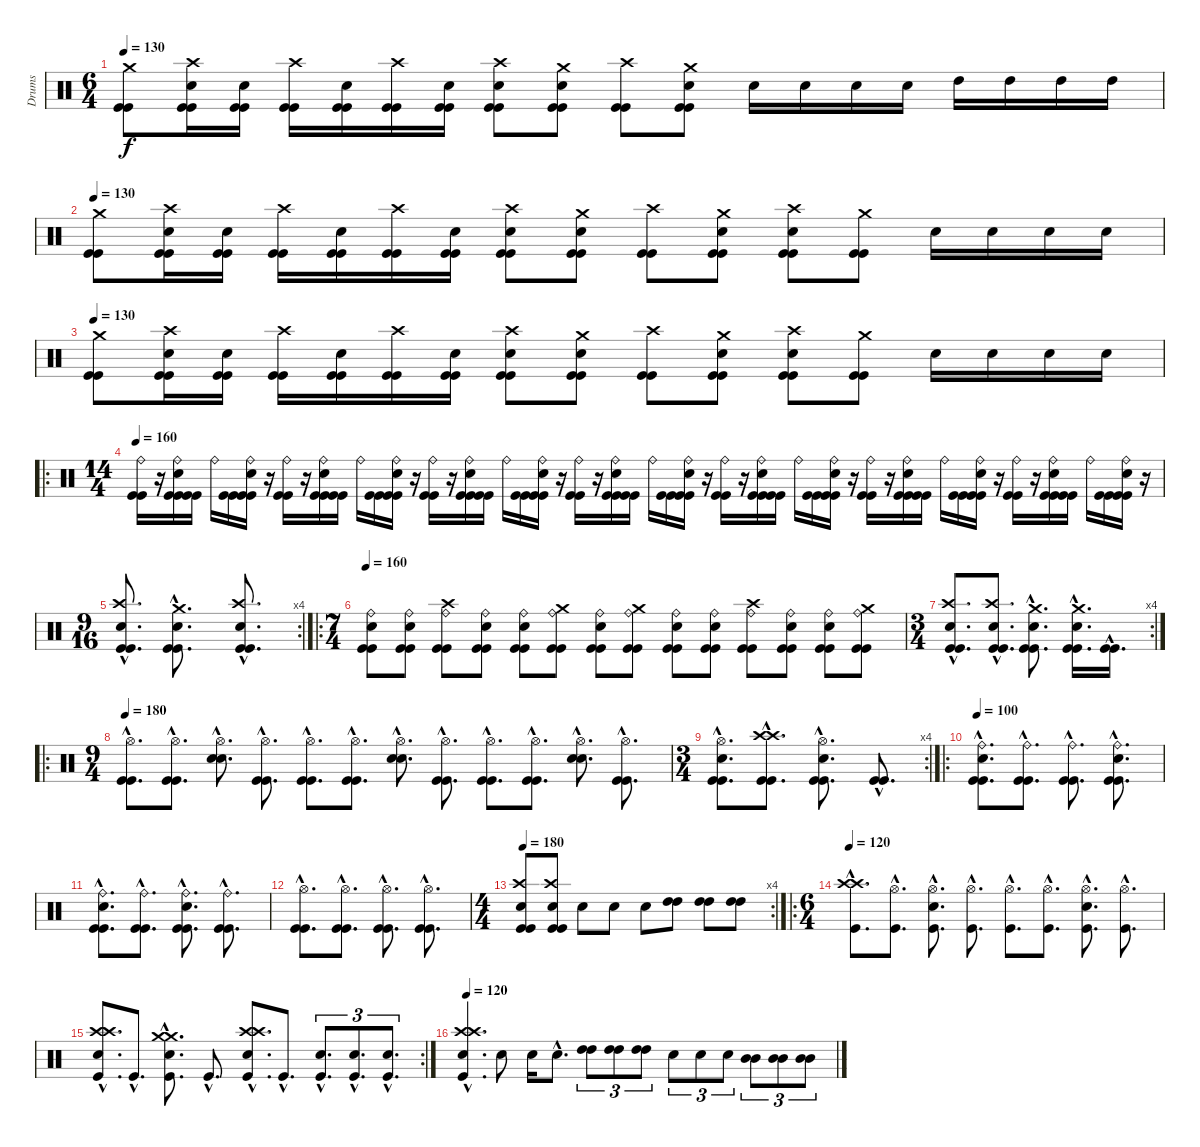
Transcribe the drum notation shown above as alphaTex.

\track ("Drums" "Drums") {instrument percussion}
\staff {score}
\articulation defaults
\ts (6 4)
\tempo 130
\clef neutral
\ks c
("Crash medium (hit)" "Kick (hit)" "Kick (hit)").8{dy f} ("Crash high (hit)" "Electric Snare (hit)" "Kick (hit)" "Kick (hit)").16 ("Electric Snare (hit)" "Kick (hit)" "Kick (hit)").16 ("Crash high (hit)" "Kick (hit)" "Kick (hit)").16 ("Electric Snare (hit)" "Kick (hit)" "Kick (hit)").16 ("Crash high (hit)" "Kick (hit)" "Kick (hit)").16 ("Electric Snare (hit)" "Kick (hit)" "Kick (hit)").16 ("Crash high (hit)" "Electric Snare (hit)" "Kick (hit)" "Kick (hit)").8 ("Crash medium (hit)" "Electric Snare (hit)" "Kick (hit)" "Kick (hit)").8 ("Crash high (hit)" "Kick (hit)" "Kick (hit)").8 ("Crash medium (hit)" "Electric Snare (hit)" "Kick (hit)" "Kick (hit)").8 "Electric Snare (hit)".16 "Electric Snare (hit)".16 "Electric Snare (hit)".16 "Electric Snare (hit)".16 "High Tom (hit)".16 "High Tom (hit)".16 "High Tom (hit)".16 "High Tom (hit)".16 |
\tempo 130
("Crash medium (hit)" "Kick (hit)" "Kick (hit)").8 ("Crash high (hit)" "Electric Snare (hit)" "Kick (hit)" "Kick (hit)").16 ("Electric Snare (hit)" "Kick (hit)" "Kick (hit)").16 ("Crash high (hit)" "Kick (hit)" "Kick (hit)").16 ("Electric Snare (hit)" "Kick (hit)" "Kick (hit)").16 ("Crash high (hit)" "Kick (hit)" "Kick (hit)").16 ("Electric Snare (hit)" "Kick (hit)" "Kick (hit)").16 ("Crash high (hit)" "Electric Snare (hit)" "Kick (hit)" "Kick (hit)").8 ("Crash medium (hit)" "Electric Snare (hit)" "Kick (hit)" "Kick (hit)").8 ("Crash high (hit)" "Kick (hit)" "Kick (hit)").8 ("Crash medium (hit)" "Electric Snare (hit)" "Kick (hit)" "Kick (hit)").8 ("Crash high (hit)" "Electric Snare (hit)" "Kick (hit)" "Kick (hit)").8 ("Crash medium (hit)" "Kick (hit)" "Kick (hit)").8 "Electric Snare (hit)".16 "Electric Snare (hit)".16 "Electric Snare (hit)".16 "Electric Snare (hit)".16 |
\tempo 130
("Crash medium (hit)" "Kick (hit)" "Kick (hit)").8 ("Crash high (hit)" "Electric Snare (hit)" "Kick (hit)" "Kick (hit)").16 ("Electric Snare (hit)" "Kick (hit)" "Kick (hit)").16 ("Crash high (hit)" "Kick (hit)" "Kick (hit)").16 ("Electric Snare (hit)" "Kick (hit)" "Kick (hit)").16 ("Crash high (hit)" "Kick (hit)" "Kick (hit)").16 ("Electric Snare (hit)" "Kick (hit)" "Kick (hit)").16 ("Crash high (hit)" "Electric Snare (hit)" "Kick (hit)" "Kick (hit)").8 ("Crash medium (hit)" "Electric Snare (hit)" "Kick (hit)" "Kick (hit)").8 ("Crash high (hit)" "Kick (hit)" "Kick (hit)").8 ("Crash medium (hit)" "Electric Snare (hit)" "Kick (hit)" "Kick (hit)").8 ("Crash high (hit)" "Electric Snare (hit)" "Kick (hit)" "Kick (hit)").8 ("Crash medium (hit)" "Kick (hit)" "Kick (hit)").8 "Electric Snare (hit)".16 "Electric Snare (hit)".16 "Electric Snare (hit)".16 "Electric Snare (hit)".16 |
\ro
\ts (14 4)
\tempo 160
("Ride (bell)" "Kick (hit)" "Kick (hit)").16 r.16 ("Ride (bell)" "Electric Snare (hit)" "Kick (hit)" "Kick (hit)").16 ("Kick (hit)" "Kick (hit)").16 "Ride (bell)".16 ("Kick (hit)" "Kick (hit)").16 ("Ride (bell)" "Electric Snare (hit)" "Kick (hit)" "Kick (hit)").16 r.16 ("Ride (bell)" "Kick (hit)" "Kick (hit)").16 r.16 ("Ride (bell)" "Electric Snare (hit)" "Kick (hit)" "Kick (hit)").16 ("Kick (hit)" "Kick (hit)").16 "Ride (bell)".16 ("Kick (hit)" "Kick (hit)").16 ("Ride (bell)" "Electric Snare (hit)" "Kick (hit)" "Kick (hit)").16 r.16 ("Ride (bell)" "Kick (hit)" "Kick (hit)").16 r.16 ("Ride (bell)" "Electric Snare (hit)" "Kick (hit)" "Kick (hit)").16 ("Kick (hit)" "Kick (hit)").16 "Ride (bell)".16 ("Kick (hit)" "Kick (hit)").16 ("Ride (bell)" "Electric Snare (hit)" "Kick (hit)" "Kick (hit)").16 r.16 ("Ride (bell)" "Kick (hit)" "Kick (hit)").16 r.16 ("Ride (bell)" "Electric Snare (hit)" "Kick (hit)" "Kick (hit)").16 ("Kick (hit)" "Kick (hit)").16 "Ride (bell)".16 ("Kick (hit)" "Kick (hit)").16 ("Ride (bell)" "Electric Snare (hit)" "Kick (hit)" "Kick (hit)").16 r.16 ("Ride (bell)" "Kick (hit)" "Kick (hit)").16 r.16 ("Ride (bell)" "Electric Snare (hit)" "Kick (hit)" "Kick (hit)").16 ("Kick (hit)" "Kick (hit)").16 "Ride (bell)".16 ("Kick (hit)" "Kick (hit)").16 ("Ride (bell)" "Electric Snare (hit)" "Kick (hit)" "Kick (hit)").16 r.16 ("Ride (bell)" "Kick (hit)" "Kick (hit)").16 r.16 ("Ride (bell)" "Electric Snare (hit)" "Kick (hit)" "Kick (hit)").16 ("Kick (hit)" "Kick (hit)").16 "Ride (bell)".16 ("Kick (hit)" "Kick (hit)").16 ("Ride (bell)" "Electric Snare (hit)" "Kick (hit)" "Kick (hit)").16 r.16 ("Ride (bell)" "Kick (hit)" "Kick (hit)").16 r.16 ("Ride (bell)" "Electric Snare (hit)" "Kick (hit)" "Kick (hit)").16 ("Kick (hit)" "Kick (hit)").16 "Ride (bell)".16 ("Kick (hit)" "Kick (hit)").16 ("Ride (bell)" "Electric Snare (hit)" "Kick (hit)" "Kick (hit)").16 r.16 |
\rc 4
\ts (9 16)
("Crash high (hit)"{hac} "Electric Snare (hit)"{hac} "Kick (hit)"{hac} "Kick (hit)"{hac}).8{d} ("Crash medium (hit)"{hac} "Electric Snare (hit)"{hac} "Kick (hit)"{hac} "Kick (hit)"{hac}).8{d} ("Crash high (hit)"{hac} "Electric Snare (hit)"{hac} "Kick (hit)"{hac} "Kick (hit)"{hac}).8{d} |
\ro
\ts (7 4)
\tempo 160
("Ride (bell)" "Electric Snare (hit)" "Kick (hit)" "Kick (hit)").8 ("Ride (bell)" "Electric Snare (hit)" "Kick (hit)" "Kick (hit)").8 ("Ride (bell)" "Crash high (hit)" "Kick (hit)" "Kick (hit)").8 ("Ride (bell)" "Electric Snare (hit)" "Kick (hit)" "Kick (hit)").8 ("Ride (bell)" "Electric Snare (hit)" "Kick (hit)" "Kick (hit)").8 ("Ride (bell)" "Crash medium (hit)" "Kick (hit)" "Kick (hit)").8 ("Ride (bell)" "Electric Snare (hit)" "Kick (hit)" "Kick (hit)").8 ("Ride (bell)" "Crash medium (hit)" "Kick (hit)" "Kick (hit)").8 ("Ride (bell)" "Electric Snare (hit)" "Kick (hit)" "Kick (hit)").8 ("Ride (bell)" "Electric Snare (hit)" "Kick (hit)" "Kick (hit)").8 ("Ride (bell)" "Crash high (hit)" "Kick (hit)" "Kick (hit)").8 ("Ride (bell)" "Electric Snare (hit)" "Kick (hit)" "Kick (hit)").8 ("Ride (bell)" "Electric Snare (hit)" "Kick (hit)" "Kick (hit)").8 ("Ride (bell)" "Crash medium (hit)" "Kick (hit)" "Kick (hit)").8 |
\rc 4
\ts (3 4)
("Crash high (hit)"{hac} "Electric Snare (hit)"{hac} "Kick (hit)"{hac} "Kick (hit)"{hac}).8{d} ("Crash high (hit)"{hac} "Electric Snare (hit)"{hac} "Kick (hit)"{hac} "Kick (hit)"{hac}).8{d} ("Crash medium (hit)"{hac} "Electric Snare (hit)"{hac} "Kick (hit)"{hac} "Kick (hit)"{hac}).8{d} ("Crash medium (hit)"{hac} "Electric Snare (hit)"{hac} "Kick (hit)"{hac} "Kick (hit)"{hac}).16{d} ("Kick (hit)"{hac} "Kick (hit)"{hac}).16{d} |
\ro
\ts (9 4)
\tempo 180
("Hi-Hat (open)"{hac} "Kick (hit)"{hac} "Kick (hit)"{hac}).8{d} ("Hi-Hat (open)"{hac} "Kick (hit)"{hac} "Kick (hit)"{hac}).8{d} ("Hi-Hat (open)"{hac} "Electric Snare (hit)"{hac} "Electric Snare (hit)"{hac}).8{d} ("Hi-Hat (open)"{hac} "Kick (hit)"{hac} "Kick (hit)"{hac}).8{d} ("Hi-Hat (open)"{hac} "Kick (hit)"{hac} "Kick (hit)"{hac}).8{d} ("Hi-Hat (open)"{hac} "Kick (hit)"{hac} "Kick (hit)"{hac}).8{d} ("Hi-Hat (open)"{hac} "Electric Snare (hit)"{hac} "Electric Snare (hit)"{hac}).8{d} ("Hi-Hat (open)"{hac} "Kick (hit)"{hac} "Kick (hit)"{hac}).8{d} ("Hi-Hat (open)"{hac} "Kick (hit)"{hac} "Kick (hit)"{hac}).8{d} ("Hi-Hat (open)"{hac} "Kick (hit)"{hac} "Kick (hit)"{hac}).8{d} ("Hi-Hat (open)"{hac} "Electric Snare (hit)"{hac} "Electric Snare (hit)"{hac}).8{d} ("Hi-Hat (open)"{hac} "Kick (hit)"{hac} "Kick (hit)"{hac}).8{d} |
\rc 4
\ts (3 4)
("Hi-Hat (open)"{hac} "Electric Snare (hit)"{hac} "Kick (hit)"{hac} "Kick (hit)"{hac}).8{d} ("Crash high (hit)"{hac} "Crash high (hit)"{hac} "Kick (hit)"{hac} "Kick (hit)"{hac}).8{d} ("Hi-Hat (open)"{hac} "Electric Snare (hit)"{hac} "Kick (hit)"{hac} "Kick (hit)"{hac}).8{d} ("Kick (hit)"{hac} "Kick (hit)"{hac}).8{d} |
\ro
\tempo 100
("Ride (bell)"{hac} "Electric Snare (hit)"{hac} "Kick (hit)"{hac} "Kick (hit)"{hac}).8{d} ("Ride (bell)"{hac} "Kick (hit)"{hac} "Kick (hit)"{hac}).8{d} ("Ride (bell)"{hac} "Kick (hit)"{hac} "Kick (hit)"{hac}).8{d} ("Ride (bell)"{hac} "Electric Snare (hit)"{hac} "Kick (hit)"{hac} "Kick (hit)"{hac}).8{d} |
("Ride (bell)"{hac} "Electric Snare (hit)"{hac} "Kick (hit)"{hac} "Kick (hit)"{hac}).8{d} ("Ride (bell)"{hac} "Kick (hit)"{hac} "Kick (hit)"{hac}).8{d} ("Ride (bell)"{hac} "Electric Snare (hit)"{hac} "Kick (hit)"{hac} "Kick (hit)"{hac}).8{d} ("Ride (bell)"{hac} "Kick (hit)"{hac} "Kick (hit)"{hac}).8{d} |
("Hi-Hat (open)"{hac} "Kick (hit)"{hac} "Kick (hit)"{hac}).8{d} ("Hi-Hat (open)"{hac} "Kick (hit)"{hac} "Kick (hit)"{hac}).8{d} ("Hi-Hat (open)"{hac} "Kick (hit)"{hac} "Kick (hit)"{hac}).8{d} ("Hi-Hat (open)"{hac} "Kick (hit)"{hac} "Kick (hit)"{hac}).8{d} |
\rc 4
\ts (4 4)
\tempo 180
("Crash high (hit)" "Electric Snare (hit)" "Kick (hit)" "Kick (hit)").8 ("Crash high (hit)" "Electric Snare (hit)" "Kick (hit)" "Kick (hit)").8 "Electric Snare (hit)".8 "Electric Snare (hit)".8 "Electric Snare (hit)".8 ("High Tom (hit)" "High Tom (hit)").8 ("High Tom (hit)" "High Tom (hit)").8 ("High Tom (hit)" "High Tom (hit)").8 |
\ro
\ts (6 4)
\tempo 120
("Crash high (hit)"{hac} "Crash high (hit)"{hac} "Kick (hit)"{hac}).8{d} ("Hi-Hat (open)"{hac} "Kick (hit)"{hac}).8{d} ("Hi-Hat (open)"{hac} "Electric Snare (hit)"{hac} "Kick (hit)"{hac}).8{d} ("Hi-Hat (open)"{hac} "Kick (hit)"{hac}).8{d} ("Hi-Hat (open)"{hac} "Kick (hit)"{hac}).8{d} ("Hi-Hat (open)"{hac} "Kick (hit)"{hac}).8{d} ("Hi-Hat (open)"{hac} "Electric Snare (hit)"{hac} "Kick (hit)"{hac}).8{d} ("Hi-Hat (open)"{hac} "Kick (hit)"{hac}).8{d} |
\rc 2
("Crash high (hit)"{hac} "Crash high (hit)"{hac} "Electric Snare (hit)"{hac} "Kick (hit)"{hac}).8{d} "Kick (hit)"{hac}.8{d} ("Crash medium (hit)"{hac} "Crash medium (hit)"{hac} "Electric Snare (hit)"{hac} "Kick (hit)"{hac}).8{d} "Kick (hit)"{hac}.8{d} ("Crash high (hit)"{hac} "Crash high (hit)"{hac} "Electric Snare (hit)"{hac} "Kick (hit)"{hac}).8{d} "Kick (hit)"{hac}.8{d} ("Electric Snare (hit)"{hac} "Kick (hit)"{hac}).8{d tu (3 2)} ("Electric Snare (hit)"{hac} "Kick (hit)"{hac}).8{d tu (3 2)} ("Electric Snare (hit)"{hac} "Kick (hit)"{hac}).8{d tu (3 2)} |
\tempo 120
("Crash high (hit)"{hac} "Crash high (hit)"{hac} "Electric Snare (hit)"{hac} "Kick (hit)"{hac}).4{d} "Electric Snare (hit)".8 "Electric Snare (hit)".16 "Electric Snare (hit)"{hac}.8{d} ("High Tom (hit)" "High Tom (hit)").8{tu (3 2)} ("High Tom (hit)" "High Tom (hit)").8{tu (3 2)} ("High Tom (hit)" "High Tom (hit)").8{tu (3 2)} "Electric Snare (hit)".8{tu (3 2)} "Electric Snare (hit)".8{tu (3 2)} "Electric Snare (hit)".8{tu (3 2)} ("Mid Tom (hit)" "Mid Tom (hit)").8{tu (3 2)} ("Mid Tom (hit)" "Mid Tom (hit)").8{tu (3 2)} ("Mid Tom (hit)" "Mid Tom (hit)").8{tu (3 2)}
